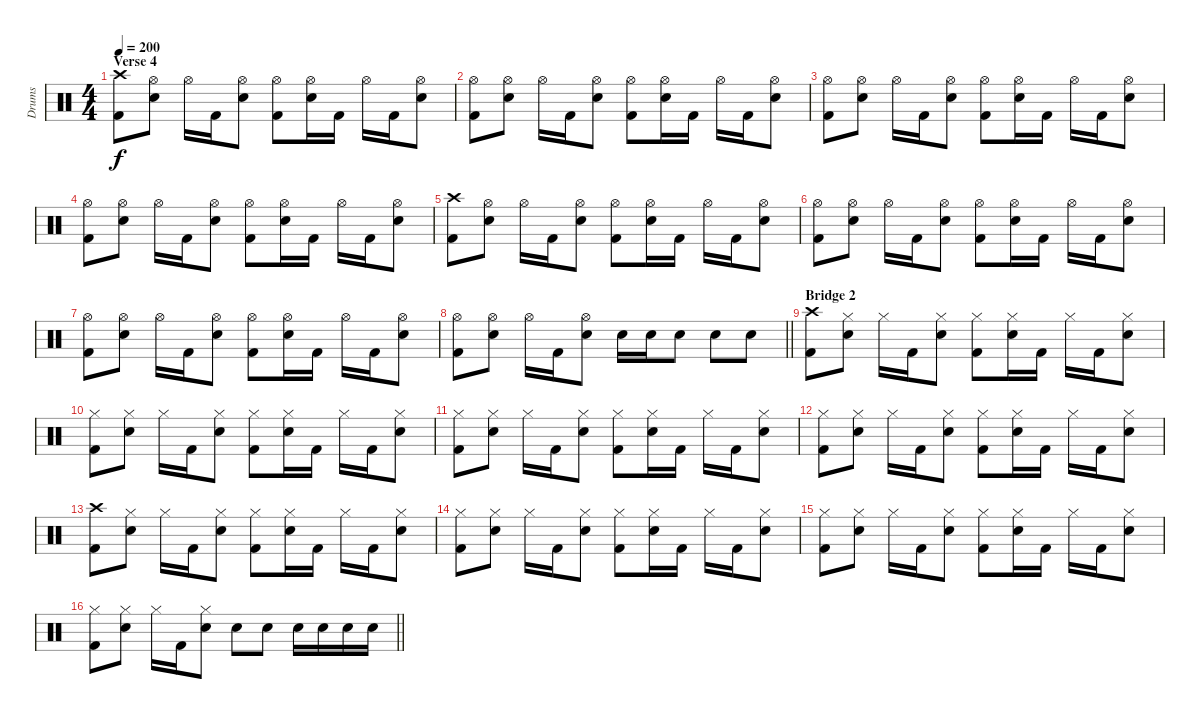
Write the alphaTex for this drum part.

\track ("Drums" "Drums") {instrument percussion}
\staff {score}
\articulation defaults
\ts (4 4)
\section ("" "Verse 4")
\tempo 200
\clef neutral
\ks c
("Crash high (hit)" "Kick (hit) 2").8{dy f} ("Hi-Hat (open)" "Electric Snare (hit)").8 "Hi-Hat (open)".16 "Kick (hit) 2".16 ("Hi-Hat (open)" "Electric Snare (hit)").8 ("Hi-Hat (open)" "Kick (hit) 2").8 ("Hi-Hat (open)" "Electric Snare (hit)").16 "Kick (hit) 2".16 "Hi-Hat (open)".16 "Kick (hit) 2".16 ("Hi-Hat (open)" "Electric Snare (hit)").8 |
("Hi-Hat (open)" "Kick (hit) 2").8 ("Hi-Hat (open)" "Electric Snare (hit)").8 "Hi-Hat (open)".16 "Kick (hit) 2".16 ("Hi-Hat (open)" "Electric Snare (hit)").8 ("Hi-Hat (open)" "Kick (hit) 2").8 ("Hi-Hat (open)" "Electric Snare (hit)").16 "Kick (hit) 2".16 "Hi-Hat (open)".16 "Kick (hit) 2".16 ("Hi-Hat (open)" "Electric Snare (hit)").8 |
("Hi-Hat (open)" "Kick (hit) 2").8 ("Hi-Hat (open)" "Electric Snare (hit)").8 "Hi-Hat (open)".16 "Kick (hit) 2".16 ("Hi-Hat (open)" "Electric Snare (hit)").8 ("Hi-Hat (open)" "Kick (hit) 2").8 ("Hi-Hat (open)" "Electric Snare (hit)").16 "Kick (hit) 2".16 "Hi-Hat (open)".16 "Kick (hit) 2".16 ("Hi-Hat (open)" "Electric Snare (hit)").8 |
("Hi-Hat (open)" "Kick (hit) 2").8 ("Hi-Hat (open)" "Electric Snare (hit)").8 "Hi-Hat (open)".16 "Kick (hit) 2".16 ("Hi-Hat (open)" "Electric Snare (hit)").8 ("Hi-Hat (open)" "Kick (hit) 2").8 ("Hi-Hat (open)" "Electric Snare (hit)").16 "Kick (hit) 2".16 "Hi-Hat (open)".16 "Kick (hit) 2".16 ("Hi-Hat (open)" "Electric Snare (hit)").8 |
("Crash high (hit)" "Kick (hit) 2").8 ("Hi-Hat (open)" "Electric Snare (hit)").8 "Hi-Hat (open)".16 "Kick (hit) 2".16 ("Hi-Hat (open)" "Electric Snare (hit)").8 ("Hi-Hat (open)" "Kick (hit) 2").8 ("Hi-Hat (open)" "Electric Snare (hit)").16 "Kick (hit) 2".16 "Hi-Hat (open)".16 "Kick (hit) 2".16 ("Hi-Hat (open)" "Electric Snare (hit)").8 |
("Hi-Hat (open)" "Kick (hit) 2").8 ("Hi-Hat (open)" "Electric Snare (hit)").8 "Hi-Hat (open)".16 "Kick (hit) 2".16 ("Hi-Hat (open)" "Electric Snare (hit)").8 ("Hi-Hat (open)" "Kick (hit) 2").8 ("Hi-Hat (open)" "Electric Snare (hit)").16 "Kick (hit) 2".16 "Hi-Hat (open)".16 "Kick (hit) 2".16 ("Hi-Hat (open)" "Electric Snare (hit)").8 |
("Hi-Hat (open)" "Kick (hit) 2").8 ("Hi-Hat (open)" "Electric Snare (hit)").8 "Hi-Hat (open)".16 "Kick (hit) 2".16 ("Hi-Hat (open)" "Electric Snare (hit)").8 ("Hi-Hat (open)" "Kick (hit) 2").8 ("Hi-Hat (open)" "Electric Snare (hit)").16 "Kick (hit) 2".16 "Hi-Hat (open)".16 "Kick (hit) 2".16 ("Hi-Hat (open)" "Electric Snare (hit)").8 |
\barLineRight lightlight
("Hi-Hat (open)" "Kick (hit) 2").8 ("Hi-Hat (open)" "Electric Snare (hit)").8 "Hi-Hat (open)".16 "Kick (hit) 2".16 ("Hi-Hat (open)" "Electric Snare (hit)").8 "Electric Snare (hit)".16 "Electric Snare (hit)".16 "Electric Snare (hit)".8 "Electric Snare (hit)".8 "Electric Snare (hit)".8 |
\section ("" "Bridge 2")
("Crash high (hit)" "Kick (hit) 2").8 ("Hi-Hat (closed)" "Electric Snare (hit)").8 "Hi-Hat (closed)".16 "Kick (hit) 2".16 ("Hi-Hat (closed)" "Electric Snare (hit)").8 ("Hi-Hat (closed)" "Kick (hit) 2").8 ("Hi-Hat (closed)" "Electric Snare (hit)").16 "Kick (hit) 2".16 "Hi-Hat (closed)".16 "Kick (hit) 2".16 ("Hi-Hat (closed)" "Electric Snare (hit)").8 |
("Hi-Hat (closed)" "Kick (hit) 2").8 ("Hi-Hat (closed)" "Electric Snare (hit)").8 "Hi-Hat (closed)".16 "Kick (hit) 2".16 ("Hi-Hat (closed)" "Electric Snare (hit)").8 ("Hi-Hat (closed)" "Kick (hit) 2").8 ("Hi-Hat (closed)" "Electric Snare (hit)").16 "Kick (hit) 2".16 "Hi-Hat (closed)".16 "Kick (hit) 2".16 ("Hi-Hat (closed)" "Electric Snare (hit)").8 |
("Hi-Hat (closed)" "Kick (hit) 2").8 ("Hi-Hat (closed)" "Electric Snare (hit)").8 "Hi-Hat (closed)".16 "Kick (hit) 2".16 ("Hi-Hat (closed)" "Electric Snare (hit)").8 ("Hi-Hat (closed)" "Kick (hit) 2").8 ("Hi-Hat (closed)" "Electric Snare (hit)").16 "Kick (hit) 2".16 "Hi-Hat (closed)".16 "Kick (hit) 2".16 ("Hi-Hat (closed)" "Electric Snare (hit)").8 |
("Hi-Hat (closed)" "Kick (hit) 2").8 ("Hi-Hat (closed)" "Electric Snare (hit)").8 "Hi-Hat (closed)".16 "Kick (hit) 2".16 ("Hi-Hat (closed)" "Electric Snare (hit)").8 ("Hi-Hat (closed)" "Kick (hit) 2").8 ("Hi-Hat (closed)" "Electric Snare (hit)").16 "Kick (hit) 2".16 "Hi-Hat (closed)".16 "Kick (hit) 2".16 ("Hi-Hat (closed)" "Electric Snare (hit)").8 |
("Crash high (hit)" "Kick (hit) 2").8 ("Hi-Hat (closed)" "Electric Snare (hit)").8 "Hi-Hat (closed)".16 "Kick (hit) 2".16 ("Hi-Hat (closed)" "Electric Snare (hit)").8 ("Hi-Hat (closed)" "Kick (hit) 2").8 ("Hi-Hat (closed)" "Electric Snare (hit)").16 "Kick (hit) 2".16 "Hi-Hat (closed)".16 "Kick (hit) 2".16 ("Hi-Hat (closed)" "Electric Snare (hit)").8 |
("Hi-Hat (closed)" "Kick (hit) 2").8 ("Hi-Hat (closed)" "Electric Snare (hit)").8 "Hi-Hat (closed)".16 "Kick (hit) 2".16 ("Hi-Hat (closed)" "Electric Snare (hit)").8 ("Hi-Hat (closed)" "Kick (hit) 2").8 ("Hi-Hat (closed)" "Electric Snare (hit)").16 "Kick (hit) 2".16 "Hi-Hat (closed)".16 "Kick (hit) 2".16 ("Hi-Hat (closed)" "Electric Snare (hit)").8 |
("Hi-Hat (closed)" "Kick (hit) 2").8 ("Hi-Hat (closed)" "Electric Snare (hit)").8 "Hi-Hat (closed)".16 "Kick (hit) 2".16 ("Hi-Hat (closed)" "Electric Snare (hit)").8 ("Hi-Hat (closed)" "Kick (hit) 2").8 ("Hi-Hat (closed)" "Electric Snare (hit)").16 "Kick (hit) 2".16 "Hi-Hat (closed)".16 "Kick (hit) 2".16 ("Hi-Hat (closed)" "Electric Snare (hit)").8 |
\barLineRight lightlight
("Hi-Hat (closed)" "Kick (hit) 2").8 ("Hi-Hat (closed)" "Electric Snare (hit)").8 "Hi-Hat (closed)".16 "Kick (hit) 2".16 ("Hi-Hat (closed)" "Electric Snare (hit)").8 "Electric Snare (hit)".8 "Electric Snare (hit)".8 "Electric Snare (hit)".16 "Electric Snare (hit)".16 "Electric Snare (hit)".16 "Electric Snare (hit)".16
